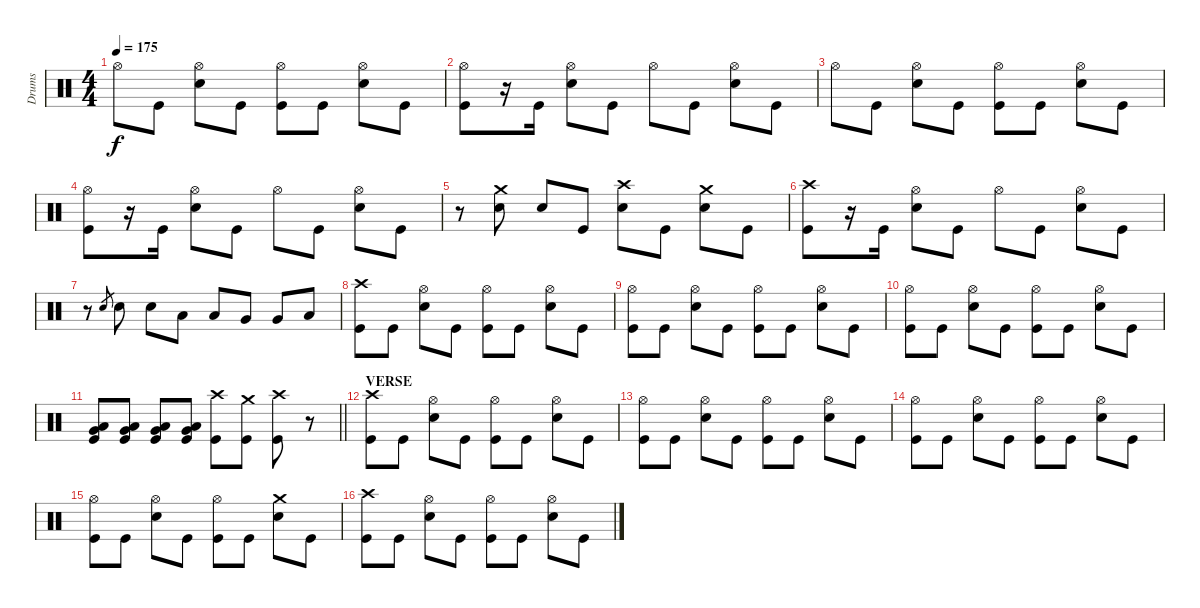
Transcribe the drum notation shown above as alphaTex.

\track ("Drums" "Drums") {instrument percussion}
\staff {score}
\articulation defaults
\ts (4 4)
\tempo 175
\clef neutral
\ks c "Hi-Hat (open)".8{dy f} "Kick (hit)".8
("Hi-Hat (open)" "Snare (hit) 2").8 "Kick (hit)".8 ("Hi-Hat (open)" "Kick (hit)").8 "Kick (hit)".8 ("Hi-Hat (open)" "Snare (hit) 2").8 "Kick (hit)".8 |
("Hi-Hat (open)" "Kick (hit)").8 r.16 "Kick (hit)".16 ("Hi-Hat (open)" "Snare (hit) 2").8 "Kick (hit)".8 "Hi-Hat (open)".8 "Kick (hit)".8 ("Hi-Hat (open)" "Snare (hit) 2").8 "Kick (hit)".8 |
"Hi-Hat (open)".8 "Kick (hit)".8 ("Hi-Hat (open)" "Snare (hit) 2").8 "Kick (hit)".8 ("Hi-Hat (open)" "Kick (hit)").8 "Kick (hit)".8 ("Hi-Hat (open)" "Snare (hit) 2").8 "Kick (hit)".8 |
("Hi-Hat (open)" "Kick (hit)").8 r.16 "Kick (hit)".16 ("Hi-Hat (open)" "Snare (hit) 2").8 "Kick (hit)".8 "Hi-Hat (open)".8 "Kick (hit)".8 ("Hi-Hat (open)" "Snare (hit) 2").8 "Kick (hit)".8 |
r.8 ("Crash medium (hit)" "Snare (hit) 2").8 "Snare (hit) 2".8 "Kick (hit)".8 ("Crash high (hit)" "Snare (hit) 2").8 "Kick (hit)".8 ("Crash medium (hit)" "Snare (hit) 2").8 "Kick (hit)".8 |
("Crash high (hit)" "Kick (hit)").8 r.16 "Kick (hit)".16 ("Hi-Hat (open)" "Snare (hit) 2").8 "Kick (hit)".8 "Hi-Hat (open)".8 "Kick (hit)".8 ("Hi-Hat (open)" "Snare (hit) 2").8 "Kick (hit)".8 |
r.8 "Snare (hit) 2".8{gr} "Snare (hit) 2".8 "Snare (hit) 2".8 "Low Tom (hit)".8 "Low Tom (hit)".8 "Very Low Tom (hit)".8 "Very Low Tom (hit)".8 "Low Floor Tom (hit)".8 |
("Crash high (hit)" "Kick (hit)").8 "Kick (hit)".8 ("Hi-Hat (open)" "Snare (hit) 2").8 "Kick (hit)".8 ("Hi-Hat (open)" "Kick (hit)").8 "Kick (hit)".8 ("Hi-Hat (open)" "Snare (hit) 2").8 "Kick (hit)".8 |
("Hi-Hat (open)" "Kick (hit)").8 "Kick (hit)".8 ("Hi-Hat (open)" "Snare (hit) 2").8 "Kick (hit)".8 ("Hi-Hat (open)" "Kick (hit)").8 "Kick (hit)".8 ("Hi-Hat (open)" "Snare (hit) 2").8 "Kick (hit)".8 |
("Hi-Hat (open)" "Kick (hit)").8 "Kick (hit)".8 ("Hi-Hat (open)" "Snare (hit) 2").8 "Kick (hit)".8 ("Hi-Hat (open)" "Kick (hit)").8 "Kick (hit)".8 ("Hi-Hat (open)" "Snare (hit) 2").8 "Kick (hit)".8 |
\barLineRight lightlight
("Low Floor Tom (hit)" "Very Low Tom (hit)" "Kick (hit)").8 ("Low Floor Tom (hit)" "Very Low Tom (hit)" "Kick (hit)").8 ("Low Floor Tom (hit)" "Very Low Tom (hit)" "Kick (hit)").8 ("Low Floor Tom (hit)" "Very Low Tom (hit)" "Kick (hit)").8 ("Crash high (hit)" "Kick (hit)").8 ("Crash medium (hit)" "Kick (hit)").8 ("Crash high (hit)" "Kick (hit)").8 r.8 |
\section ("" "VERSE")
("Crash high (hit)" "Kick (hit)").8 "Kick (hit)".8 ("Hi-Hat (open)" "Snare (hit) 2").8 "Kick (hit)".8 ("Hi-Hat (open)" "Kick (hit)").8 "Kick (hit)".8 ("Hi-Hat (open)" "Snare (hit) 2").8 "Kick (hit)".8 |
("Hi-Hat (open)" "Kick (hit)").8 "Kick (hit)".8 ("Hi-Hat (open)" "Snare (hit) 2").8 "Kick (hit)".8 ("Hi-Hat (open)" "Kick (hit)").8 "Kick (hit)".8 ("Hi-Hat (open)" "Snare (hit) 2").8 "Kick (hit)".8 |
("Hi-Hat (open)" "Kick (hit)").8 "Kick (hit)".8 ("Hi-Hat (open)" "Snare (hit) 2").8 "Kick (hit)".8 ("Hi-Hat (open)" "Kick (hit)").8 "Kick (hit)".8 ("Hi-Hat (open)" "Snare (hit) 2").8 "Kick (hit)".8 |
("Hi-Hat (open)" "Kick (hit)").8 "Kick (hit)".8 ("Hi-Hat (open)" "Snare (hit) 2").8 "Kick (hit)".8 ("Hi-Hat (open)" "Kick (hit)").8 "Kick (hit)".8 ("Crash medium (hit)" "Snare (hit) 2").8 "Kick (hit)".8 |
("Crash high (hit)" "Kick (hit)").8 "Kick (hit)".8 ("Hi-Hat (open)" "Snare (hit) 2").8 "Kick (hit)".8 ("Hi-Hat (open)" "Kick (hit)").8 "Kick (hit)".8 ("Hi-Hat (open)" "Snare (hit) 2").8 "Kick (hit)".8
